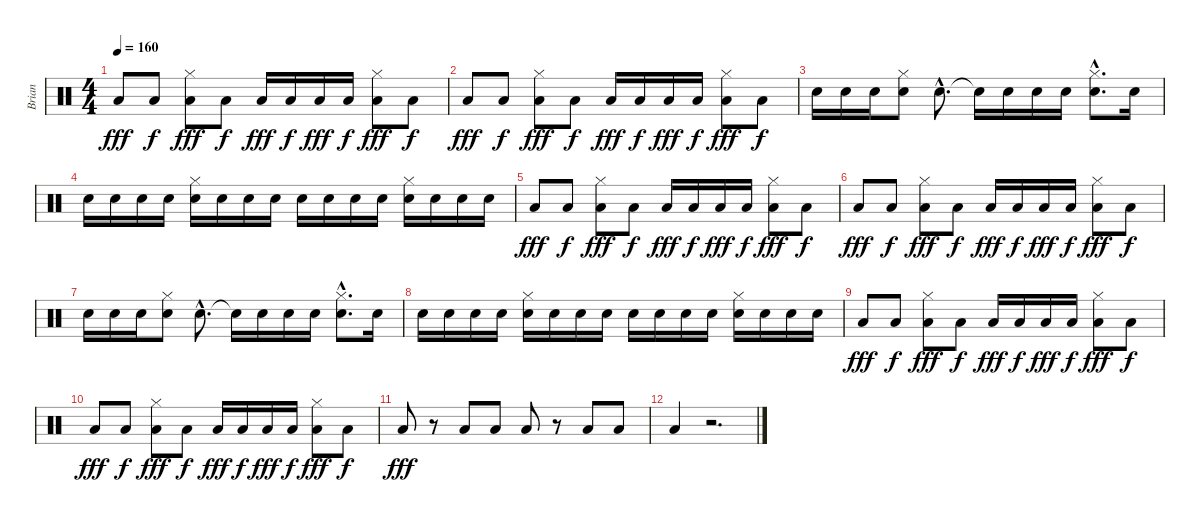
\track ("Brian" "Brian") {instrument percussion}
\staff {score}
\articulation defaults
\ts (4 4)
\tempo 160
\clef neutral
\ks c "Low Tom (hit)".8{dy fff} "Low Tom (hit)".8{dy f}
("Hi-Hat (closed)" "Low Tom (hit)").8{dy fff} "Low Tom (hit)".8{dy f} "Low Tom (hit)".16{dy fff} "Low Tom (hit)".16{dy f} "Low Tom (hit)".16{dy fff} "Low Tom (hit)".16{dy f} ("Hi-Hat (closed)" "Low Tom (hit)").8{dy fff} "Low Tom (hit)".8{dy f} |
"Low Tom (hit)".8{dy fff} "Low Tom (hit)".8{dy f} ("Hi-Hat (closed)" "Low Tom (hit)").8{dy fff} "Low Tom (hit)".8{dy f} "Low Tom (hit)".16{dy fff} "Low Tom (hit)".16{dy f} "Low Tom (hit)".16{dy fff} "Low Tom (hit)".16{dy f} ("Hi-Hat (closed)" "Low Tom (hit)").8{dy fff} "Low Tom (hit)".8{dy f} |
"Snare (hit) 2".16 "Snare (hit) 2".16 "Snare (hit) 2".16 ("Hi-Hat (closed)" "Snare (hit) 2").8 "Snare (hit) 2"{hac}.8{d} "Snare (hit)"{t}.16 "Snare (hit) 2".16 "Snare (hit) 2".16 "Snare (hit) 2".16 ("Hi-Hat (closed)"{hac} "Snare (hit) 2"{hac}).8{d} "Snare (hit) 2".16 |
"Snare (hit) 2".16 "Snare (hit) 2".16 "Snare (hit) 2".16 "Snare (hit) 2".16 ("Hi-Hat (closed)" "Snare (hit) 2").16 "Snare (hit) 2".16 "Snare (hit) 2".16 "Snare (hit) 2".16 "Snare (hit) 2".16 "Snare (hit) 2".16 "Snare (hit) 2".16 "Snare (hit) 2".16 ("Hi-Hat (closed)" "Snare (hit) 2").16 "Snare (hit) 2".16 "Snare (hit) 2".16 "Snare (hit) 2".16 |
"Low Tom (hit)".8{dy fff} "Low Tom (hit)".8{dy f} ("Hi-Hat (closed)" "Low Tom (hit)").8{dy fff} "Low Tom (hit)".8{dy f} "Low Tom (hit)".16{dy fff} "Low Tom (hit)".16{dy f} "Low Tom (hit)".16{dy fff} "Low Tom (hit)".16{dy f} ("Hi-Hat (closed)" "Low Tom (hit)").8{dy fff} "Low Tom (hit)".8{dy f} |
"Low Tom (hit)".8{dy fff} "Low Tom (hit)".8{dy f} ("Hi-Hat (closed)" "Low Tom (hit)").8{dy fff} "Low Tom (hit)".8{dy f} "Low Tom (hit)".16{dy fff} "Low Tom (hit)".16{dy f} "Low Tom (hit)".16{dy fff} "Low Tom (hit)".16{dy f} ("Hi-Hat (closed)" "Low Tom (hit)").8{dy fff} "Low Tom (hit)".8{dy f} |
"Snare (hit) 2".16 "Snare (hit) 2".16 "Snare (hit) 2".16 ("Hi-Hat (closed)" "Snare (hit) 2").8 "Snare (hit) 2"{hac}.8{d} "Snare (hit)"{t}.16 "Snare (hit) 2".16 "Snare (hit) 2".16 "Snare (hit) 2".16 ("Hi-Hat (closed)"{hac} "Snare (hit) 2"{hac}).8{d} "Snare (hit) 2".16 |
"Snare (hit) 2".16 "Snare (hit) 2".16 "Snare (hit) 2".16 "Snare (hit) 2".16 ("Hi-Hat (closed)" "Snare (hit) 2").16 "Snare (hit) 2".16 "Snare (hit) 2".16 "Snare (hit) 2".16 "Snare (hit) 2".16 "Snare (hit) 2".16 "Snare (hit) 2".16 "Snare (hit) 2".16 ("Hi-Hat (closed)" "Snare (hit) 2").16 "Snare (hit) 2".16 "Snare (hit) 2".16 "Snare (hit) 2".16 |
"Low Tom (hit)".8{dy fff} "Low Tom (hit)".8{dy f} ("Hi-Hat (closed)" "Low Tom (hit)").8{dy fff} "Low Tom (hit)".8{dy f} "Low Tom (hit)".16{dy fff} "Low Tom (hit)".16{dy f} "Low Tom (hit)".16{dy fff} "Low Tom (hit)".16{dy f} ("Hi-Hat (closed)" "Low Tom (hit)").8{dy fff} "Low Tom (hit)".8{dy f} |
"Low Tom (hit)".8{dy fff} "Low Tom (hit)".8{dy f} ("Hi-Hat (closed)" "Low Tom (hit)").8{dy fff} "Low Tom (hit)".8{dy f} "Low Tom (hit)".16{dy fff} "Low Tom (hit)".16{dy f} "Low Tom (hit)".16{dy fff} "Low Tom (hit)".16{dy f} ("Hi-Hat (closed)" "Low Tom (hit)").8{dy fff} "Low Tom (hit)".8{dy f} |
"Low Tom (hit)".8{dy fff} r.8 "Low Tom (hit)".8 "Low Tom (hit)".8 "Low Tom (hit)".8 r.8 "Low Tom (hit)".8 "Low Tom (hit)".8 |
"Low Tom (hit)".4 r.2{d}
